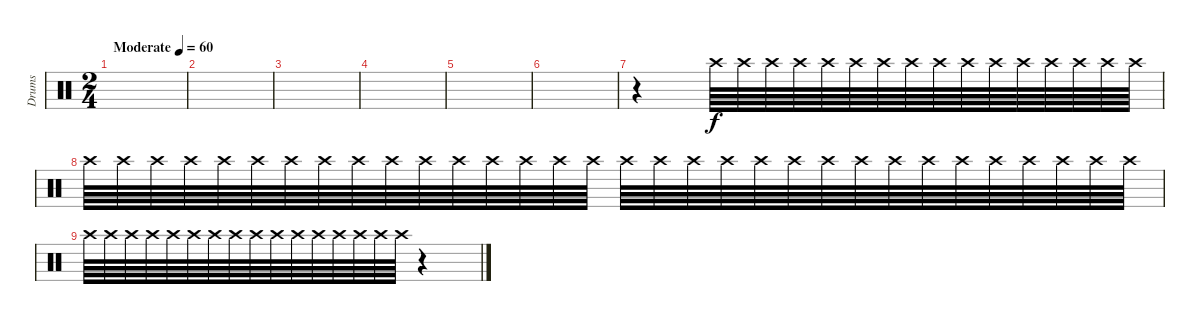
\track ("Drums" "Drums") {instrument percussion}
\staff {score}
\articulation defaults
\ts (2 4)
\tempo (60 "Moderate")
\clef neutral
\ks c
|
|
|
|
|
|
r.4 "Crash high (hit)".64{volume 0} "Crash high (hit)".64{volume 0} "Crash high (hit)".64{volume 0} "Crash high (hit)".64{volume 0} "Crash high (hit)".64{volume 0} "Crash high (hit)".64{volume 0} "Crash high (hit)".64{volume 0} "Crash high (hit)".64{volume 3} "Crash high (hit)".64{volume 3} "Crash high (hit)".64{volume 3} "Crash high (hit)".64{volume 4} "Crash high (hit)".64{volume 4} "Crash high (hit)".64{volume 5} "Crash high (hit)".64{volume 5} "Crash high (hit)".64{volume 5} "Crash high (hit)".64{volume 5} |
"Crash high (hit)".64{volume 6} "Crash high (hit)".64 "Crash high (hit)".64 "Crash high (hit)".64 "Crash high (hit)".64 "Crash high (hit)".64 "Crash high (hit)".64 "Crash high (hit)".64 "Crash high (hit)".64 "Crash high (hit)".64 "Crash high (hit)".64 "Crash high (hit)".64 "Crash high (hit)".64 "Crash high (hit)".64 "Crash high (hit)".64 "Crash high (hit)".64 "Crash high (hit)".64{volume 8} "Crash high (hit)".64{volume 8} "Crash high (hit)".64{volume 10} "Crash high (hit)".64{volume 10} "Crash high (hit)".64{volume 10} "Crash high (hit)".64{volume 10} "Crash high (hit)".64{volume 10} "Crash high (hit)".64{volume 11} "Crash high (hit)".64{volume 11} "Crash high (hit)".64{volume 11} "Crash high (hit)".64{volume 11} "Crash high (hit)".64{volume 11} "Crash high (hit)".64{volume 11} "Crash high (hit)".64{volume 11} "Crash high (hit)".64{volume 11} "Crash high (hit)".64{volume 11} |
"Crash high (hit)".64{volume 10} "Crash high (hit)".64{volume 10} "Crash high (hit)".64{volume 8} "Crash high (hit)".64{volume 8} "Crash high (hit)".64{volume 8} "Crash high (hit)".64{volume 8} "Crash high (hit)".64{volume 6} "Crash high (hit)".64{volume 6} "Crash high (hit)".64{volume 6} "Crash high (hit)".64{volume 5} "Crash high (hit)".64{volume 3} "Crash high (hit)".64{volume 2} "Crash high (hit)".64{volume 2} "Crash high (hit)".64{volume 0} "Crash high (hit)".64{volume 0} "Crash high (hit)".64{volume 0} r.4
